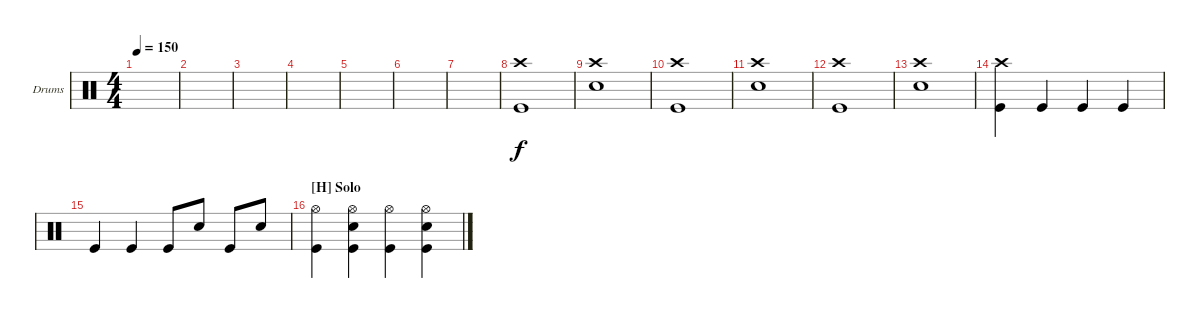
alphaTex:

\defaultSystemsLayout 4
\bracketExtendMode groupsimilarinstruments
\firstSystemTrackNameOrientation horizontal
\otherSystemsTrackNameOrientation horizontal
\track ("Drums" "Drums") {instrument percussion}
\staff {score}
\articulation defaults
\ts (4 4)
\tempo 150
\clef neutral
\scale
0.333333
\ks c
|
\scale
0.333333 |
\scale
0.333333 |
\scale
0.333333 |
\scale
0.333333 |
\scale
0.333333 |
\scale
0.333333 |
\scale
0.333333 ("Kick (hit)" "Crash high (hit)").1 |
\scale
0.333333 ("Crash high (hit)" "Snare (hit) 2").1 |
\scale
0.333333 ("Kick (hit)" "Crash high (hit)").1 |
\scale
0.333333 ("Crash high (hit)" "Snare (hit) 2").1 |
\scale
0.333333 ("Kick (hit)" "Crash high (hit)").1 |
\scale
0.333333 ("Crash high (hit)" "Snare (hit) 2").1 |
\scale
0.333333 ("Crash high (hit)" "Kick (hit)").4 "Kick (hit)".4 "Kick (hit)".4 "Kick (hit)".4 |
\scale
0.333333 "Kick (hit)".4 "Kick (hit)".4 "Kick (hit)".8 "Snare (hit) 2".8 "Kick (hit)".8 "Snare (hit) 2".8 |
\section ("H" "Solo")
\scale
0.333333 ("Kick (hit)" "Hi-Hat (open)").4 ("Kick (hit)" "Snare (hit) 2" "Hi-Hat (open)").4 ("Kick (hit)" "Hi-Hat (open)").4 ("Kick (hit)" "Snare (hit) 2" "Hi-Hat (open)").4
